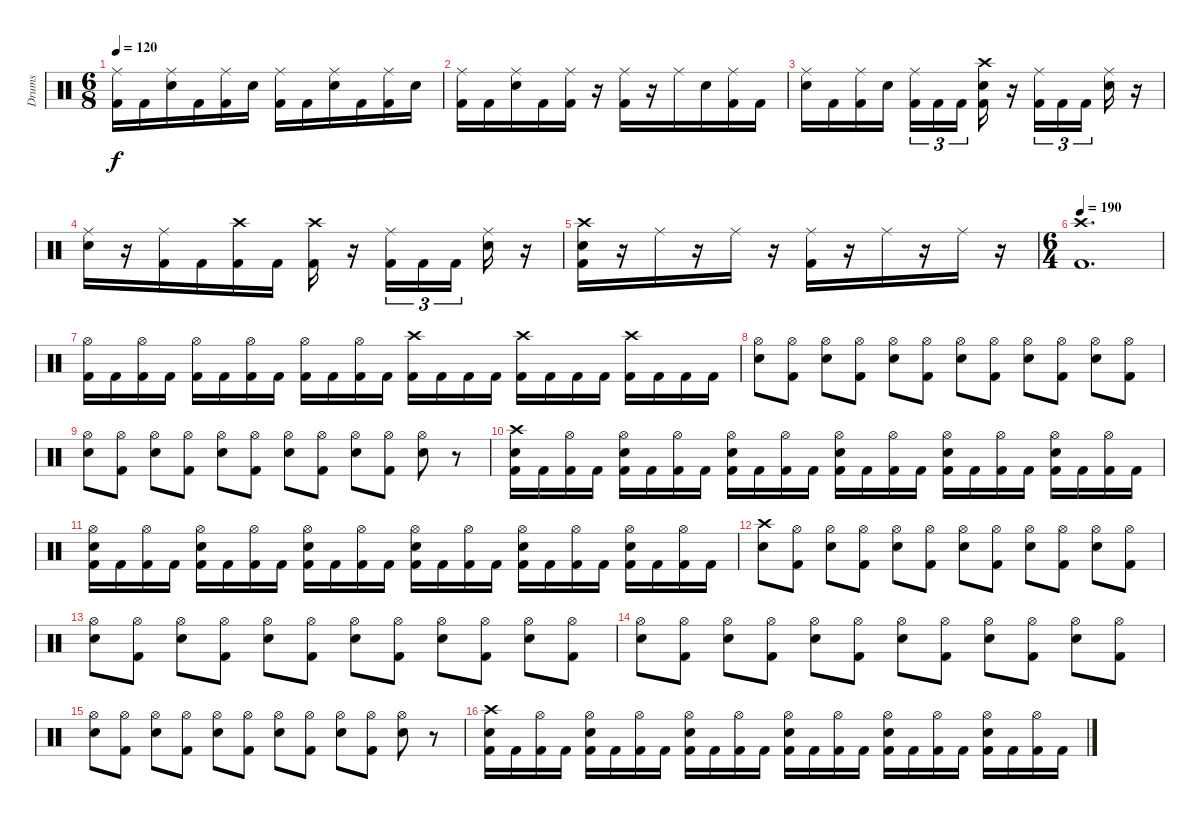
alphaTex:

\track ("Drums" "Drums") {instrument percussion}
\staff {score}
\articulation defaults
\ts (6 8)
\tempo 120
\clef neutral
\ks aminor
("Kick (hit) 2" "Ride (middle)").16{dy f} "Kick (hit) 2".16 ("Electric Snare (hit)" "Ride (middle)").16 "Kick (hit) 2".16 ("Kick (hit) 2" "Ride (middle)").16 "Electric Snare (hit)".16 ("Kick (hit) 2" "Ride (middle)").16 "Kick (hit) 2".16 ("Electric Snare (hit)" "Ride (middle)").16 "Kick (hit) 2".16 ("Kick (hit) 2" "Ride (middle)").16 "Electric Snare (hit)".16 |
("Kick (hit) 2" "Ride (middle)").16 "Kick (hit) 2".16 ("Electric Snare (hit)" "Ride (middle)").16 "Kick (hit) 2".16 ("Kick (hit) 2" "Ride (middle)").16 r.16 ("Kick (hit) 2" "Ride (middle)").16 r.16 "Ride (middle)".16 "Electric Snare (hit)".16 ("Kick (hit) 2" "Ride (middle)").16 "Kick (hit) 2".16 |
("Electric Snare (hit)" "Ride (middle)").16 "Kick (hit) 2".16 ("Kick (hit) 2" "Ride (middle)").16 "Electric Snare (hit)".16{beam splitsecondary} ("Kick (hit) 2" "Ride (middle)").16{tu (3 2)} "Kick (hit) 2".16{tu (3 2)} "Kick (hit) 2".16{tu (3 2)} ("Kick (hit) 2" "Electric Snare (hit)" "Crash high (hit)").16 r.16 ("Kick (hit) 2" "Ride (middle)").16{tu (3 2)} "Kick (hit) 2".16{tu (3 2)} "Kick (hit) 2".16{tu (3 2) beam splitsecondary} ("Electric Snare (hit)" "Ride (middle)").16 r.16 |
("Electric Snare (hit)" "Ride (middle)").16 r.16 ("Kick (hit) 2" "Ride (middle)").16 "Kick (hit) 2".16 ("Kick (hit) 2" "Crash high (hit)").16 "Kick (hit) 2".16 ("Kick (hit) 2" "Crash high (hit)").16 r.16 ("Kick (hit) 2" "Ride (middle)").16{tu (3 2)} "Kick (hit) 2".16{tu (3 2)} "Kick (hit) 2".16{tu (3 2) beam splitsecondary} ("Electric Snare (hit)" "Ride (middle)").16 r.16 |
("Kick (hit) 2" "Electric Snare (hit)" "Crash high (hit)").16 r.16 "Ride (middle)".16 r.16 "Ride (middle)".16 r.16 ("Kick (hit) 2" "Ride (middle)").16 r.16 "Ride (middle)".16 r.16 "Ride (middle)".16 r.16 |
\ts (6 4)
\tempo 190
("Kick (hit) 2" "Crash high (hit)").1{d} |
("Kick (hit) 2" "Hi-Hat (open)").16 "Kick (hit) 2".16 ("Kick (hit) 2" "Hi-Hat (open)").16 "Kick (hit) 2".16 ("Kick (hit) 2" "Hi-Hat (open)").16 "Kick (hit) 2".16 ("Kick (hit) 2" "Hi-Hat (open)").16 "Kick (hit) 2".16 ("Kick (hit) 2" "Hi-Hat (open)").16 "Kick (hit) 2".16 ("Kick (hit) 2" "Hi-Hat (open)").16 "Kick (hit) 2".16 ("Kick (hit) 2" "Crash high (hit)").16 "Kick (hit) 2".16 "Kick (hit) 2".16 "Kick (hit) 2".16 ("Kick (hit) 2" "Crash high (hit)").16 "Kick (hit) 2".16 "Kick (hit) 2".16 "Kick (hit) 2".16 ("Kick (hit) 2" "Crash high (hit)").16 "Kick (hit) 2".16 "Kick (hit) 2".16 "Kick (hit) 2".16 |
("Electric Snare (hit)" "Hi-Hat (open)").8 ("Kick (hit) 2" "Hi-Hat (open)").8 ("Electric Snare (hit)" "Hi-Hat (open)").8 ("Kick (hit) 2" "Hi-Hat (open)").8 ("Electric Snare (hit)" "Hi-Hat (open)").8 ("Kick (hit) 2" "Hi-Hat (open)").8 ("Electric Snare (hit)" "Hi-Hat (open)").8 ("Kick (hit) 2" "Hi-Hat (open)").8 ("Electric Snare (hit)" "Hi-Hat (open)").8 ("Kick (hit) 2" "Hi-Hat (open)").8 ("Electric Snare (hit)" "Hi-Hat (open)").8 ("Kick (hit) 2" "Hi-Hat (open)").8 |
("Electric Snare (hit)" "Hi-Hat (open)").8 ("Kick (hit) 2" "Hi-Hat (open)").8 ("Electric Snare (hit)" "Hi-Hat (open)").8 ("Kick (hit) 2" "Hi-Hat (open)").8 ("Electric Snare (hit)" "Hi-Hat (open)").8 ("Kick (hit) 2" "Hi-Hat (open)").8 ("Electric Snare (hit)" "Hi-Hat (open)").8 ("Kick (hit) 2" "Hi-Hat (open)").8 ("Electric Snare (hit)" "Hi-Hat (open)").8 ("Kick (hit) 2" "Hi-Hat (open)").8 ("Electric Snare (hit)" "Hi-Hat (open)").8 r.8 |
("Kick (hit) 2" "Electric Snare (hit)" "Crash high (hit)").16 "Kick (hit) 2".16 ("Kick (hit) 2" "Hi-Hat (open)").16 "Kick (hit) 2".16 ("Kick (hit) 2" "Electric Snare (hit)" "Hi-Hat (open)").16 "Kick (hit) 2".16 ("Kick (hit) 2" "Hi-Hat (open)").16 "Kick (hit) 2".16 ("Kick (hit) 2" "Electric Snare (hit)" "Hi-Hat (open)").16 "Kick (hit) 2".16 ("Kick (hit) 2" "Hi-Hat (open)").16 "Kick (hit) 2".16 ("Kick (hit) 2" "Electric Snare (hit)" "Hi-Hat (open)").16 "Kick (hit) 2".16 ("Kick (hit) 2" "Hi-Hat (open)").16 "Kick (hit) 2".16 ("Kick (hit) 2" "Electric Snare (hit)" "Hi-Hat (open)").16 "Kick (hit) 2".16 ("Kick (hit) 2" "Hi-Hat (open)").16 "Kick (hit) 2".16 ("Kick (hit) 2" "Electric Snare (hit)" "Hi-Hat (open)").16 "Kick (hit) 2".16 ("Kick (hit) 2" "Hi-Hat (open)").16 "Kick (hit) 2".16 |
("Kick (hit) 2" "Electric Snare (hit)" "Hi-Hat (open)").16 "Kick (hit) 2".16 ("Kick (hit) 2" "Hi-Hat (open)").16 "Kick (hit) 2".16 ("Kick (hit) 2" "Electric Snare (hit)" "Hi-Hat (open)").16 "Kick (hit) 2".16 ("Kick (hit) 2" "Hi-Hat (open)").16 "Kick (hit) 2".16 ("Kick (hit) 2" "Electric Snare (hit)" "Hi-Hat (open)").16 "Kick (hit) 2".16 ("Kick (hit) 2" "Hi-Hat (open)").16 "Kick (hit) 2".16 ("Kick (hit) 2" "Electric Snare (hit)" "Hi-Hat (open)").16 "Kick (hit) 2".16 ("Kick (hit) 2" "Hi-Hat (open)").16 "Kick (hit) 2".16 ("Kick (hit) 2" "Electric Snare (hit)" "Hi-Hat (open)").16 "Kick (hit) 2".16 ("Kick (hit) 2" "Hi-Hat (open)").16 "Kick (hit) 2".16 ("Kick (hit) 2" "Electric Snare (hit)" "Hi-Hat (open)").16 "Kick (hit) 2".16 ("Kick (hit) 2" "Hi-Hat (open)").16 "Kick (hit) 2".16 |
("Electric Snare (hit)" "Crash high (hit)").8 ("Kick (hit) 2" "Hi-Hat (open)").8 ("Electric Snare (hit)" "Hi-Hat (open)").8 ("Kick (hit) 2" "Hi-Hat (open)").8 ("Electric Snare (hit)" "Hi-Hat (open)").8 ("Kick (hit) 2" "Hi-Hat (open)").8 ("Electric Snare (hit)" "Hi-Hat (open)").8 ("Kick (hit) 2" "Hi-Hat (open)").8 ("Electric Snare (hit)" "Hi-Hat (open)").8 ("Kick (hit) 2" "Hi-Hat (open)").8 ("Electric Snare (hit)" "Hi-Hat (open)").8 ("Kick (hit) 2" "Hi-Hat (open)").8 |
("Electric Snare (hit)" "Hi-Hat (open)").8 ("Kick (hit) 2" "Hi-Hat (open)").8 ("Electric Snare (hit)" "Hi-Hat (open)").8 ("Kick (hit) 2" "Hi-Hat (open)").8 ("Electric Snare (hit)" "Hi-Hat (open)").8 ("Kick (hit) 2" "Hi-Hat (open)").8 ("Electric Snare (hit)" "Hi-Hat (open)").8 ("Kick (hit) 2" "Hi-Hat (open)").8 ("Electric Snare (hit)" "Hi-Hat (open)").8 ("Kick (hit) 2" "Hi-Hat (open)").8 ("Electric Snare (hit)" "Hi-Hat (open)").8 ("Kick (hit) 2" "Hi-Hat (open)").8 |
("Electric Snare (hit)" "Hi-Hat (open)").8 ("Kick (hit) 2" "Hi-Hat (open)").8 ("Electric Snare (hit)" "Hi-Hat (open)").8 ("Kick (hit) 2" "Hi-Hat (open)").8 ("Electric Snare (hit)" "Hi-Hat (open)").8 ("Kick (hit) 2" "Hi-Hat (open)").8 ("Electric Snare (hit)" "Hi-Hat (open)").8 ("Kick (hit) 2" "Hi-Hat (open)").8 ("Electric Snare (hit)" "Hi-Hat (open)").8 ("Kick (hit) 2" "Hi-Hat (open)").8 ("Electric Snare (hit)" "Hi-Hat (open)").8 ("Kick (hit) 2" "Hi-Hat (open)").8 |
("Electric Snare (hit)" "Hi-Hat (open)").8 ("Kick (hit) 2" "Hi-Hat (open)").8 ("Electric Snare (hit)" "Hi-Hat (open)").8 ("Kick (hit) 2" "Hi-Hat (open)").8 ("Electric Snare (hit)" "Hi-Hat (open)").8 ("Kick (hit) 2" "Hi-Hat (open)").8 ("Electric Snare (hit)" "Hi-Hat (open)").8 ("Kick (hit) 2" "Hi-Hat (open)").8 ("Electric Snare (hit)" "Hi-Hat (open)").8 ("Kick (hit) 2" "Hi-Hat (open)").8 ("Electric Snare (hit)" "Hi-Hat (open)").8 r.8 |
("Kick (hit) 2" "Electric Snare (hit)" "Crash high (hit)").16 "Kick (hit) 2".16 ("Kick (hit) 2" "Hi-Hat (open)").16 "Kick (hit) 2".16 ("Kick (hit) 2" "Electric Snare (hit)" "Hi-Hat (open)").16 "Kick (hit) 2".16 ("Kick (hit) 2" "Hi-Hat (open)").16 "Kick (hit) 2".16 ("Kick (hit) 2" "Electric Snare (hit)" "Hi-Hat (open)").16 "Kick (hit) 2".16 ("Kick (hit) 2" "Hi-Hat (open)").16 "Kick (hit) 2".16 ("Kick (hit) 2" "Electric Snare (hit)" "Hi-Hat (open)").16 "Kick (hit) 2".16 ("Kick (hit) 2" "Hi-Hat (open)").16 "Kick (hit) 2".16 ("Kick (hit) 2" "Electric Snare (hit)" "Hi-Hat (open)").16 "Kick (hit) 2".16 ("Kick (hit) 2" "Hi-Hat (open)").16 "Kick (hit) 2".16 ("Kick (hit) 2" "Electric Snare (hit)" "Hi-Hat (open)").16 "Kick (hit) 2".16 ("Kick (hit) 2" "Hi-Hat (open)").16 "Kick (hit) 2".16
